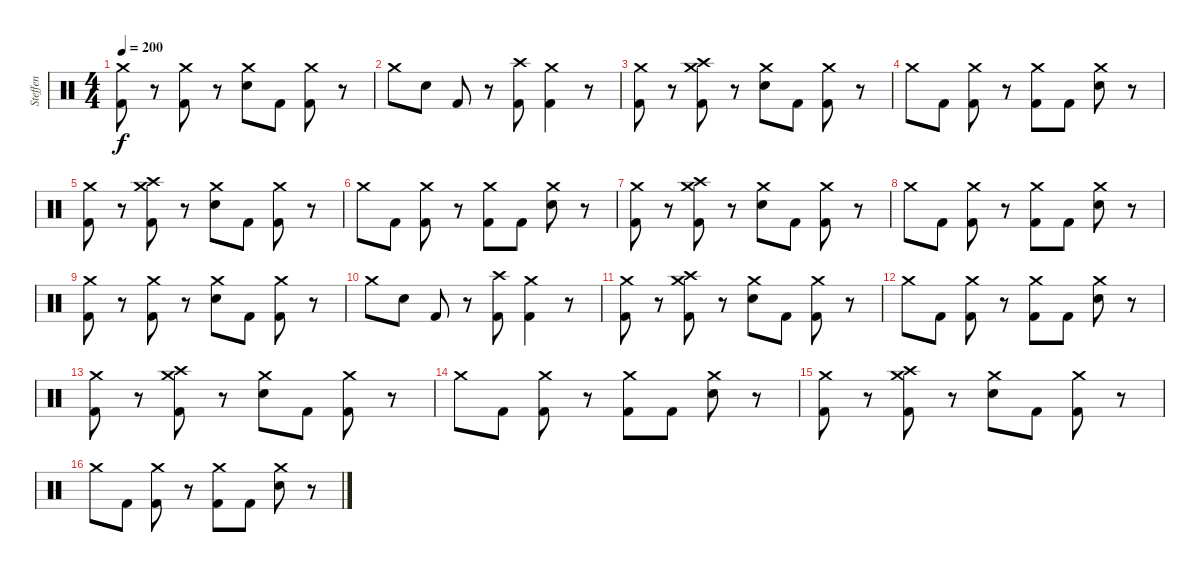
\track ("Steffen" "Steffen") {instrument percussion}
\staff {score}
\articulation defaults
\ts (4 4)
\tempo 200
\clef neutral
\ks c
("Crash medium (hit)" "Kick (hit) 2").8{dy f} r.8 ("Crash medium (hit)" "Kick (hit) 2").8 r.8 ("Crash medium (hit)" "Snare (hit) 2").8 "Kick (hit) 2".8 ("Crash medium (hit)" "Kick (hit) 2").8 r.8 |
"Crash medium (hit)".8 "Snare (hit) 2".8 "Kick (hit) 2".8 r.8 ("Crash high (hit)" "Kick (hit) 2").8 ("Crash medium (hit)" "Kick (hit) 2").4 r.8 |
("Crash medium (hit)" "Kick (hit) 2").8 r.8 ("Crash high (hit)" "Crash medium (hit)" "Kick (hit) 2").8 r.8 ("Crash medium (hit)" "Snare (hit) 2").8 "Kick (hit) 2".8 ("Crash medium (hit)" "Kick (hit) 2").8 r.8 |
"Crash medium (hit)".8 "Kick (hit) 2".8 ("Crash medium (hit)" "Kick (hit) 2").8 r.8 ("Crash medium (hit)" "Kick (hit) 2").8 "Kick (hit) 2".8 ("Crash medium (hit)" "Snare (hit) 2").8 r.8 |
("Crash medium (hit)" "Kick (hit) 2").8 r.8 ("Crash high (hit)" "Crash medium (hit)" "Kick (hit) 2").8 r.8 ("Crash medium (hit)" "Snare (hit) 2").8 "Kick (hit) 2".8 ("Crash medium (hit)" "Kick (hit) 2").8 r.8 |
"Crash medium (hit)".8 "Kick (hit) 2".8 ("Crash medium (hit)" "Kick (hit) 2").8 r.8 ("Crash medium (hit)" "Kick (hit) 2").8 "Kick (hit) 2".8 ("Crash medium (hit)" "Snare (hit) 2").8 r.8 |
("Crash medium (hit)" "Kick (hit) 2").8 r.8 ("Crash high (hit)" "Crash medium (hit)" "Kick (hit) 2").8 r.8 ("Crash medium (hit)" "Snare (hit) 2").8 "Kick (hit) 2".8 ("Crash medium (hit)" "Kick (hit) 2").8 r.8 |
"Crash medium (hit)".8 "Kick (hit) 2".8 ("Crash medium (hit)" "Kick (hit) 2").8 r.8 ("Crash medium (hit)" "Kick (hit) 2").8 "Kick (hit) 2".8 ("Crash medium (hit)" "Snare (hit) 2").8 r.8 |
("Crash medium (hit)" "Kick (hit) 2").8 r.8 ("Crash medium (hit)" "Kick (hit) 2").8 r.8 ("Crash medium (hit)" "Snare (hit) 2").8 "Kick (hit) 2".8 ("Crash medium (hit)" "Kick (hit) 2").8 r.8 |
"Crash medium (hit)".8 "Snare (hit) 2".8 "Kick (hit) 2".8 r.8 ("Crash high (hit)" "Kick (hit) 2").8 ("Crash medium (hit)" "Kick (hit) 2").4 r.8 |
("Crash medium (hit)" "Kick (hit) 2").8 r.8 ("Crash high (hit)" "Crash medium (hit)" "Kick (hit) 2").8 r.8 ("Crash medium (hit)" "Snare (hit) 2").8 "Kick (hit) 2".8 ("Crash medium (hit)" "Kick (hit) 2").8 r.8 |
"Crash medium (hit)".8 "Kick (hit) 2".8 ("Crash medium (hit)" "Kick (hit) 2").8 r.8 ("Crash medium (hit)" "Kick (hit) 2").8 "Kick (hit) 2".8 ("Crash medium (hit)" "Snare (hit) 2").8 r.8 |
("Crash medium (hit)" "Kick (hit) 2").8 r.8 ("Crash medium (hit)" "Crash high (hit)" "Kick (hit) 2").8 r.8 ("Crash medium (hit)" "Snare (hit) 2").8 "Kick (hit) 2".8 ("Crash medium (hit)" "Kick (hit) 2").8 r.8 |
"Crash medium (hit)".8 "Kick (hit) 2".8 ("Crash medium (hit)" "Kick (hit) 2").8 r.8 ("Crash medium (hit)" "Kick (hit) 2").8 "Kick (hit) 2".8 ("Crash medium (hit)" "Snare (hit) 2").8 r.8 |
("Crash medium (hit)" "Kick (hit) 2").8 r.8 ("Crash high (hit)" "Crash medium (hit)" "Kick (hit) 2").8 r.8 ("Crash medium (hit)" "Snare (hit) 2").8 "Kick (hit) 2".8 ("Crash medium (hit)" "Kick (hit) 2").8 r.8 |
"Crash medium (hit)".8 "Kick (hit) 2".8 ("Crash medium (hit)" "Kick (hit) 2").8 r.8 ("Crash medium (hit)" "Kick (hit) 2").8 "Kick (hit) 2".8 ("Crash medium (hit)" "Snare (hit) 2").8 r.8
